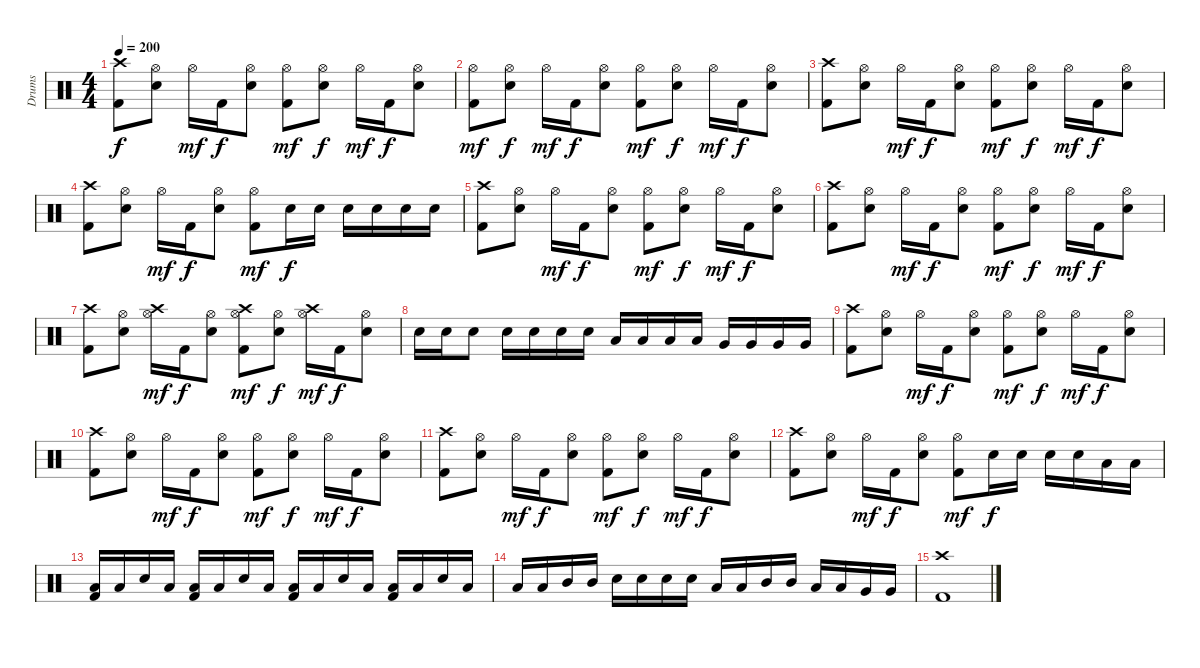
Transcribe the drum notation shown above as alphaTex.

\track ("Drums" "Drums") {instrument percussion}
\staff {score}
\articulation defaults
\ts (4 4)
\tempo 200
\clef neutral
\ks c
("Crash high (hit)" "Kick (hit) 2").8{dy f} ("Hi-Hat (open)" "Electric Snare (hit)").8 "Hi-Hat (open)".16{dy mf} "Kick (hit) 2".16{dy f} ("Hi-Hat (open)" "Electric Snare (hit)").8 ("Hi-Hat (open)" "Kick (hit) 2").8{dy mf} ("Hi-Hat (open)" "Electric Snare (hit)").8{dy f} "Hi-Hat (open)".16{dy mf} "Kick (hit) 2".16{dy f} ("Hi-Hat (open)" "Electric Snare (hit)").8 |
("Hi-Hat (open)" "Kick (hit) 2").8{dy mf} ("Hi-Hat (open)" "Electric Snare (hit)").8{dy f} "Hi-Hat (open)".16{dy mf} "Kick (hit) 2".16{dy f} ("Hi-Hat (open)" "Electric Snare (hit)").8 ("Hi-Hat (open)" "Kick (hit) 2").8{dy mf} ("Hi-Hat (open)" "Electric Snare (hit)").8{dy f} "Hi-Hat (open)".16{dy mf} "Kick (hit) 2".16{dy f} ("Hi-Hat (open)" "Electric Snare (hit)").8 |
("Crash high (hit)" "Kick (hit) 2").8 ("Hi-Hat (open)" "Electric Snare (hit)").8 "Hi-Hat (open)".16{dy mf} "Kick (hit) 2".16{dy f} ("Hi-Hat (open)" "Electric Snare (hit)").8 ("Hi-Hat (open)" "Kick (hit) 2").8{dy mf} ("Hi-Hat (open)" "Electric Snare (hit)").8{dy f} "Hi-Hat (open)".16{dy mf} "Kick (hit) 2".16{dy f} ("Hi-Hat (open)" "Electric Snare (hit)").8 |
("Crash high (hit)" "Kick (hit) 2").8 ("Hi-Hat (open)" "Electric Snare (hit)").8 "Hi-Hat (open)".16{dy mf} "Kick (hit) 2".16{dy f} ("Hi-Hat (open)" "Electric Snare (hit)").8 ("Hi-Hat (open)" "Kick (hit) 2").8{dy mf} "Electric Snare (hit)".16{dy f} "Electric Snare (hit)".16 "Electric Snare (hit)".16 "Electric Snare (hit)".16 "Electric Snare (hit)".16 "Electric Snare (hit)".16 |
("Crash high (hit)" "Kick (hit) 2").8 ("Hi-Hat (open)" "Electric Snare (hit)").8 "Hi-Hat (open)".16{dy mf} "Kick (hit) 2".16{dy f} ("Hi-Hat (open)" "Electric Snare (hit)").8 ("Hi-Hat (open)" "Kick (hit) 2").8{dy mf} ("Hi-Hat (open)" "Electric Snare (hit)").8{dy f} "Hi-Hat (open)".16{dy mf} "Kick (hit) 2".16{dy f} ("Hi-Hat (open)" "Electric Snare (hit)").8 |
("Crash high (hit)" "Kick (hit) 2").8 ("Hi-Hat (open)" "Electric Snare (hit)").8 "Hi-Hat (open)".16{dy mf} "Kick (hit) 2".16{dy f} ("Hi-Hat (open)" "Electric Snare (hit)").8 ("Hi-Hat (open)" "Kick (hit) 2").8{dy mf} ("Hi-Hat (open)" "Electric Snare (hit)").8{dy f} "Hi-Hat (open)".16{dy mf} "Kick (hit) 2".16{dy f} ("Hi-Hat (open)" "Electric Snare (hit)").8 |
("Crash high (hit)" "Kick (hit) 2").8 ("Hi-Hat (open)" "Electric Snare (hit)").8 ("Crash high (hit)" "Hi-Hat (open)").16{dy mf} "Kick (hit) 2".16{dy f} ("Hi-Hat (open)" "Electric Snare (hit)").8 ("Crash high (hit)" "Hi-Hat (open)" "Kick (hit) 2").8{dy mf} ("Hi-Hat (open)" "Electric Snare (hit)").8{dy f} ("Crash high (hit)" "Hi-Hat (open)").16{dy mf} "Kick (hit) 2".16{dy f} ("Hi-Hat (open)" "Electric Snare (hit)").8 |
"Electric Snare (hit)".16 "Electric Snare (hit)".16 "Electric Snare (hit)".8 "Electric Snare (hit)".16 "Electric Snare (hit)".16 "Electric Snare (hit)".16 "Electric Snare (hit)".16 "Low Tom (hit)".16 "Low Tom (hit)".16 "Low Tom (hit)".16 "Low Tom (hit)".16 "Very Low Tom (hit)".16 "Very Low Tom (hit)".16 "Very Low Tom (hit)".16 "Very Low Tom (hit)".16 |
("Crash high (hit)" "Kick (hit) 2").8 ("Hi-Hat (open)" "Electric Snare (hit)").8 "Hi-Hat (open)".16{dy mf} "Kick (hit) 2".16{dy f} ("Hi-Hat (open)" "Electric Snare (hit)").8 ("Hi-Hat (open)" "Kick (hit) 2").8{dy mf} ("Hi-Hat (open)" "Electric Snare (hit)").8{dy f} "Hi-Hat (open)".16{dy mf} "Kick (hit) 2".16{dy f} ("Hi-Hat (open)" "Electric Snare (hit)").8 |
("Crash high (hit)" "Kick (hit) 2").8 ("Hi-Hat (open)" "Electric Snare (hit)").8 "Hi-Hat (open)".16{dy mf} "Kick (hit) 2".16{dy f} ("Hi-Hat (open)" "Electric Snare (hit)").8 ("Hi-Hat (open)" "Kick (hit) 2").8{dy mf} ("Hi-Hat (open)" "Electric Snare (hit)").8{dy f} "Hi-Hat (open)".16{dy mf} "Kick (hit) 2".16{dy f} ("Hi-Hat (open)" "Electric Snare (hit)").8 |
("Crash high (hit)" "Kick (hit) 2").8 ("Hi-Hat (open)" "Electric Snare (hit)").8 "Hi-Hat (open)".16{dy mf} "Kick (hit) 2".16{dy f} ("Hi-Hat (open)" "Electric Snare (hit)").8 ("Hi-Hat (open)" "Kick (hit) 2").8{dy mf} ("Hi-Hat (open)" "Electric Snare (hit)").8{dy f} "Hi-Hat (open)".16{dy mf} "Kick (hit) 2".16{dy f} ("Hi-Hat (open)" "Electric Snare (hit)").8 |
("Crash high (hit)" "Kick (hit) 2").8 ("Hi-Hat (open)" "Electric Snare (hit)").8 "Hi-Hat (open)".16{dy mf} "Kick (hit) 2".16{dy f} ("Hi-Hat (open)" "Electric Snare (hit)").8 ("Hi-Hat (open)" "Kick (hit) 2").8{dy mf} "Electric Snare (hit)".16{dy f} "Electric Snare (hit)".16 "Electric Snare (hit)".16 "Electric Snare (hit)".16 "Low Tom (hit)".16 "Low Tom (hit)".16 |
("Low Tom (hit)" "Kick (hit) 2").16 "Low Tom (hit)".16 "Electric Snare (hit)".16 "Low Tom (hit)".16 ("Low Tom (hit)" "Kick (hit) 2").16 "Low Tom (hit)".16 "Electric Snare (hit)".16 "Low Tom (hit)".16 ("Low Tom (hit)" "Kick (hit) 2").16 "Low Tom (hit)".16 "Electric Snare (hit)".16 "Low Tom (hit)".16 ("Low Tom (hit)" "Kick (hit) 2").16 "Low Tom (hit)".16 "Electric Snare (hit)".16 "Low Tom (hit)".16 |
"Low Tom (hit)".16 "Low Tom (hit)".16 "Mid Tom (hit)".16 "Mid Tom (hit)".16 "Electric Snare (hit)".16 "Electric Snare (hit)".16 "Electric Snare (hit)".16 "Electric Snare (hit)".16 "Low Tom (hit)".16 "Low Tom (hit)".16 "Mid Tom (hit)".16 "Mid Tom (hit)".16 "Low Tom (hit)".16 "Low Tom (hit)".16 "Very Low Tom (hit)".16 "Very Low Tom (hit)".16 |
("Crash high (hit)" "Kick (hit) 2").1
